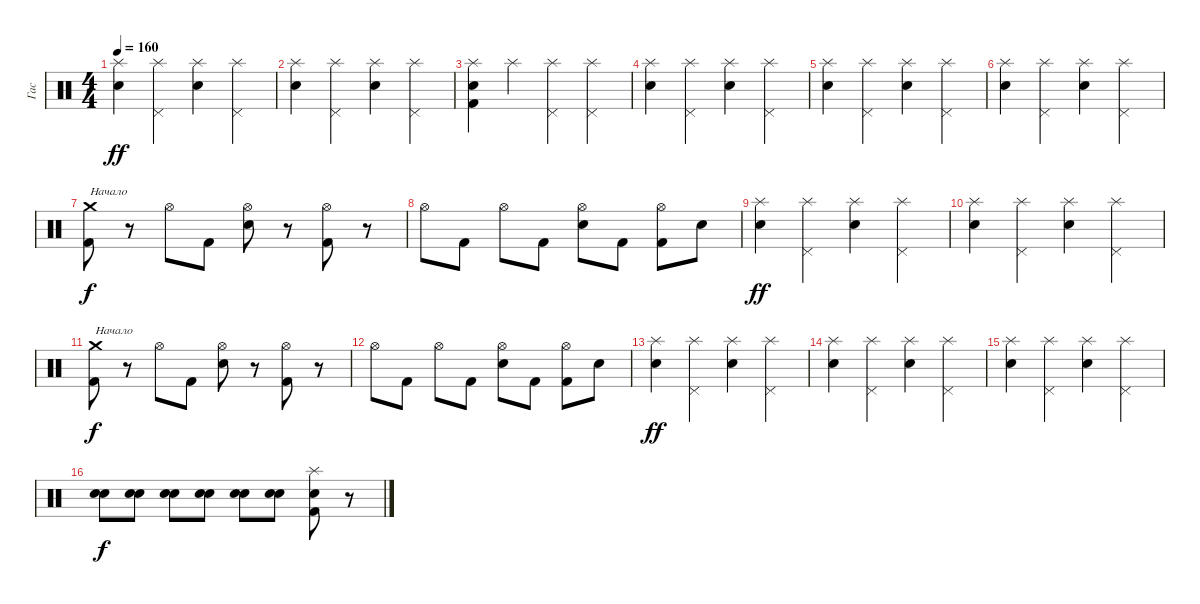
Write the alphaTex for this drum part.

\track ("Гас" "Гас") {instrument percussion}
\staff {score}
\articulation defaults
\ts (4 4)
\tempo 160
\clef neutral
\ks c
("Splash (hit)" "Electric Snare (hit)").4{dy ff} ("Splash (hit)" "Pedal Hi-Hat (hit)").4 ("Splash (hit)" "Electric Snare (hit)").4 ("Splash (hit)" "Pedal Hi-Hat (hit)").4 |
("Splash (hit)" "Electric Snare (hit)").4 ("Splash (hit)" "Pedal Hi-Hat (hit)").4 ("Splash (hit)" "Electric Snare (hit)").4 ("Splash (hit)" "Pedal Hi-Hat (hit)").4 |
("Splash (hit)" "Electric Snare (hit)" "Kick (hit) 2").4 "Splash (hit)".4 ("Splash (hit)" "Pedal Hi-Hat (hit)").4 ("Splash (hit)" "Pedal Hi-Hat (hit)").4 |
("Splash (hit)" "Electric Snare (hit)").4 ("Splash (hit)" "Pedal Hi-Hat (hit)").4 ("Splash (hit)" "Electric Snare (hit)").4 ("Splash (hit)" "Pedal Hi-Hat (hit)").4 |
("Splash (hit)" "Electric Snare (hit)").4 ("Splash (hit)" "Pedal Hi-Hat (hit)").4 ("Splash (hit)" "Electric Snare (hit)").4 ("Splash (hit)" "Pedal Hi-Hat (hit)").4 |
("Splash (hit)" "Electric Snare (hit)").4 ("Splash (hit)" "Pedal Hi-Hat (hit)").4 ("Splash (hit)" "Electric Snare (hit)").4 ("Splash (hit)" "Pedal Hi-Hat (hit)").4 |
("Crash medium (hit)" "Kick (hit) 2").8{txt "Начало" dy f} r.8 "Hi-Hat (open)".8 "Kick (hit) 2".8 ("Hi-Hat (open)" "Electric Snare (hit)").8 r.8 ("Hi-Hat (open)" "Kick (hit) 2").8 r.8 |
"Hi-Hat (open)".8 "Kick (hit) 2".8 "Hi-Hat (open)".8 "Kick (hit) 2".8 ("Hi-Hat (open)" "Electric Snare (hit)").8 "Kick (hit) 2".8 ("Hi-Hat (open)" "Kick (hit) 2").8 "Electric Snare (hit)".8 |
("Splash (hit)" "Electric Snare (hit)").4{dy ff} ("Splash (hit)" "Pedal Hi-Hat (hit)").4 ("Splash (hit)" "Electric Snare (hit)").4 ("Splash (hit)" "Pedal Hi-Hat (hit)").4 |
("Splash (hit)" "Electric Snare (hit)").4 ("Splash (hit)" "Pedal Hi-Hat (hit)").4 ("Splash (hit)" "Electric Snare (hit)").4 ("Splash (hit)" "Pedal Hi-Hat (hit)").4 |
("Crash medium (hit)" "Kick (hit) 2").8{txt "Начало" dy f} r.8 "Hi-Hat (open)".8 "Kick (hit) 2".8 ("Hi-Hat (open)" "Electric Snare (hit)").8 r.8 ("Hi-Hat (open)" "Kick (hit) 2").8 r.8 |
"Hi-Hat (open)".8 "Kick (hit) 2".8 "Hi-Hat (open)".8 "Kick (hit) 2".8 ("Hi-Hat (open)" "Electric Snare (hit)").8 "Kick (hit) 2".8 ("Hi-Hat (open)" "Kick (hit) 2").8 "Electric Snare (hit)".8 |
("Splash (hit)" "Electric Snare (hit)").4{dy ff} ("Splash (hit)" "Pedal Hi-Hat (hit)").4 ("Splash (hit)" "Electric Snare (hit)").4 ("Splash (hit)" "Pedal Hi-Hat (hit)").4 |
("Splash (hit)" "Electric Snare (hit)").4 ("Splash (hit)" "Pedal Hi-Hat (hit)").4 ("Splash (hit)" "Electric Snare (hit)").4 ("Splash (hit)" "Pedal Hi-Hat (hit)").4 |
("Splash (hit)" "Electric Snare (hit)").4 ("Splash (hit)" "Pedal Hi-Hat (hit)").4 ("Splash (hit)" "Electric Snare (hit)").4 ("Splash (hit)" "Pedal Hi-Hat (hit)").4 |
("Electric Snare (hit)" "Snare (hit) 2").8{dy f} ("Electric Snare (hit)" "Snare (hit) 2").8 ("Electric Snare (hit)" "Snare (hit) 2").8 ("Electric Snare (hit)" "Snare (hit) 2").8 ("Electric Snare (hit)" "Snare (hit) 2").8 ("Electric Snare (hit)" "Snare (hit) 2").8 ("Splash (hit)" "Kick (hit) 2" "Electric Snare (hit)").8 r.8
